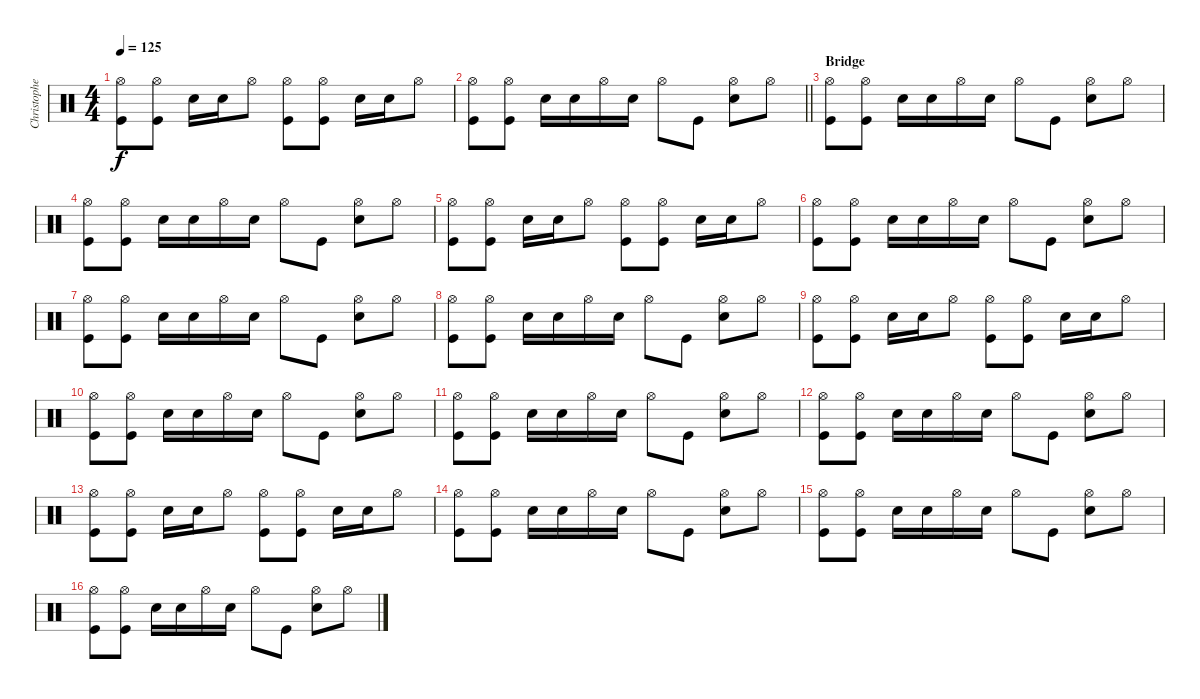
\track ("Christopher - Drums" "Christophe") {instrument percussion}
\staff {score}
\articulation defaults
\ts (4 4)
\tempo 125
\clef neutral
\ks c
("Hi-Hat (open)" "Kick (hit)").8{dy f} ("Hi-Hat (open)" "Kick (hit)").8 "Electric Snare (hit)".16 "Electric Snare (hit)".16 "Hi-Hat (open)".8 ("Hi-Hat (open)" "Kick (hit)").8 ("Hi-Hat (open)" "Kick (hit)").8 "Electric Snare (hit)".16 "Electric Snare (hit)".16 "Hi-Hat (open)".8 |
\barLineRight lightlight
("Hi-Hat (open)" "Kick (hit)").8 ("Hi-Hat (open)" "Kick (hit)").8 "Electric Snare (hit)".16 "Electric Snare (hit)".16 "Hi-Hat (open)".16 "Electric Snare (hit)".16 "Hi-Hat (open)".8 "Kick (hit)".8 ("Hi-Hat (open)" "Electric Snare (hit)").8 "Hi-Hat (open)".8 |
\section ("" "Bridge")
("Hi-Hat (open)" "Kick (hit)").8 ("Hi-Hat (open)" "Kick (hit)").8 "Electric Snare (hit)".16 "Electric Snare (hit)".16 "Hi-Hat (open)".16 "Electric Snare (hit)".16 "Hi-Hat (open)".8 "Kick (hit)".8 ("Hi-Hat (open)" "Electric Snare (hit)").8 "Hi-Hat (open)".8 |
("Hi-Hat (open)" "Kick (hit)").8 ("Hi-Hat (open)" "Kick (hit)").8 "Electric Snare (hit)".16 "Electric Snare (hit)".16 "Hi-Hat (open)".16 "Electric Snare (hit)".16 "Hi-Hat (open)".8 "Kick (hit)".8 ("Hi-Hat (open)" "Electric Snare (hit)").8 "Hi-Hat (open)".8 |
("Hi-Hat (open)" "Kick (hit)").8 ("Hi-Hat (open)" "Kick (hit)").8 "Electric Snare (hit)".16 "Electric Snare (hit)".16 "Hi-Hat (open)".8 ("Hi-Hat (open)" "Kick (hit)").8 ("Hi-Hat (open)" "Kick (hit)").8 "Electric Snare (hit)".16 "Electric Snare (hit)".16 "Hi-Hat (open)".8 |
("Hi-Hat (open)" "Kick (hit)").8 ("Hi-Hat (open)" "Kick (hit)").8 "Electric Snare (hit)".16 "Electric Snare (hit)".16 "Hi-Hat (open)".16 "Electric Snare (hit)".16 "Hi-Hat (open)".8 "Kick (hit)".8 ("Hi-Hat (open)" "Electric Snare (hit)").8 "Hi-Hat (open)".8 |
("Hi-Hat (open)" "Kick (hit)").8 ("Hi-Hat (open)" "Kick (hit)").8 "Electric Snare (hit)".16 "Electric Snare (hit)".16 "Hi-Hat (open)".16 "Electric Snare (hit)".16 "Hi-Hat (open)".8 "Kick (hit)".8 ("Hi-Hat (open)" "Electric Snare (hit)").8 "Hi-Hat (open)".8 |
("Hi-Hat (open)" "Kick (hit)").8 ("Hi-Hat (open)" "Kick (hit)").8 "Electric Snare (hit)".16 "Electric Snare (hit)".16 "Hi-Hat (open)".16 "Electric Snare (hit)".16 "Hi-Hat (open)".8 "Kick (hit)".8 ("Hi-Hat (open)" "Electric Snare (hit)").8 "Hi-Hat (open)".8 |
("Hi-Hat (open)" "Kick (hit)").8 ("Hi-Hat (open)" "Kick (hit)").8 "Electric Snare (hit)".16 "Electric Snare (hit)".16 "Hi-Hat (open)".8 ("Hi-Hat (open)" "Kick (hit)").8 ("Hi-Hat (open)" "Kick (hit)").8 "Electric Snare (hit)".16 "Electric Snare (hit)".16 "Hi-Hat (open)".8 |
("Hi-Hat (open)" "Kick (hit)").8 ("Hi-Hat (open)" "Kick (hit)").8 "Electric Snare (hit)".16 "Electric Snare (hit)".16 "Hi-Hat (open)".16 "Electric Snare (hit)".16 "Hi-Hat (open)".8 "Kick (hit)".8 ("Hi-Hat (open)" "Electric Snare (hit)").8 "Hi-Hat (open)".8 |
("Hi-Hat (open)" "Kick (hit)").8 ("Hi-Hat (open)" "Kick (hit)").8 "Electric Snare (hit)".16 "Electric Snare (hit)".16 "Hi-Hat (open)".16 "Electric Snare (hit)".16 "Hi-Hat (open)".8 "Kick (hit)".8 ("Hi-Hat (open)" "Electric Snare (hit)").8 "Hi-Hat (open)".8 |
("Hi-Hat (open)" "Kick (hit)").8 ("Hi-Hat (open)" "Kick (hit)").8 "Electric Snare (hit)".16 "Electric Snare (hit)".16 "Hi-Hat (open)".16 "Electric Snare (hit)".16 "Hi-Hat (open)".8 "Kick (hit)".8 ("Hi-Hat (open)" "Electric Snare (hit)").8 "Hi-Hat (open)".8 |
("Hi-Hat (open)" "Kick (hit)").8 ("Hi-Hat (open)" "Kick (hit)").8 "Electric Snare (hit)".16 "Electric Snare (hit)".16 "Hi-Hat (open)".8 ("Hi-Hat (open)" "Kick (hit)").8 ("Hi-Hat (open)" "Kick (hit)").8 "Electric Snare (hit)".16 "Electric Snare (hit)".16 "Hi-Hat (open)".8 |
("Hi-Hat (open)" "Kick (hit)").8 ("Hi-Hat (open)" "Kick (hit)").8 "Electric Snare (hit)".16 "Electric Snare (hit)".16 "Hi-Hat (open)".16 "Electric Snare (hit)".16 "Hi-Hat (open)".8 "Kick (hit)".8 ("Hi-Hat (open)" "Electric Snare (hit)").8 "Hi-Hat (open)".8 |
("Hi-Hat (open)" "Kick (hit)").8 ("Hi-Hat (open)" "Kick (hit)").8 "Electric Snare (hit)".16 "Electric Snare (hit)".16 "Hi-Hat (open)".16 "Electric Snare (hit)".16 "Hi-Hat (open)".8 "Kick (hit)".8 ("Hi-Hat (open)" "Electric Snare (hit)").8 "Hi-Hat (open)".8 |
("Hi-Hat (open)" "Kick (hit)").8 ("Hi-Hat (open)" "Kick (hit)").8 "Electric Snare (hit)".16 "Electric Snare (hit)".16 "Hi-Hat (open)".16 "Electric Snare (hit)".16 "Hi-Hat (open)".8 "Kick (hit)".8 ("Hi-Hat (open)" "Electric Snare (hit)").8 "Hi-Hat (open)".8
